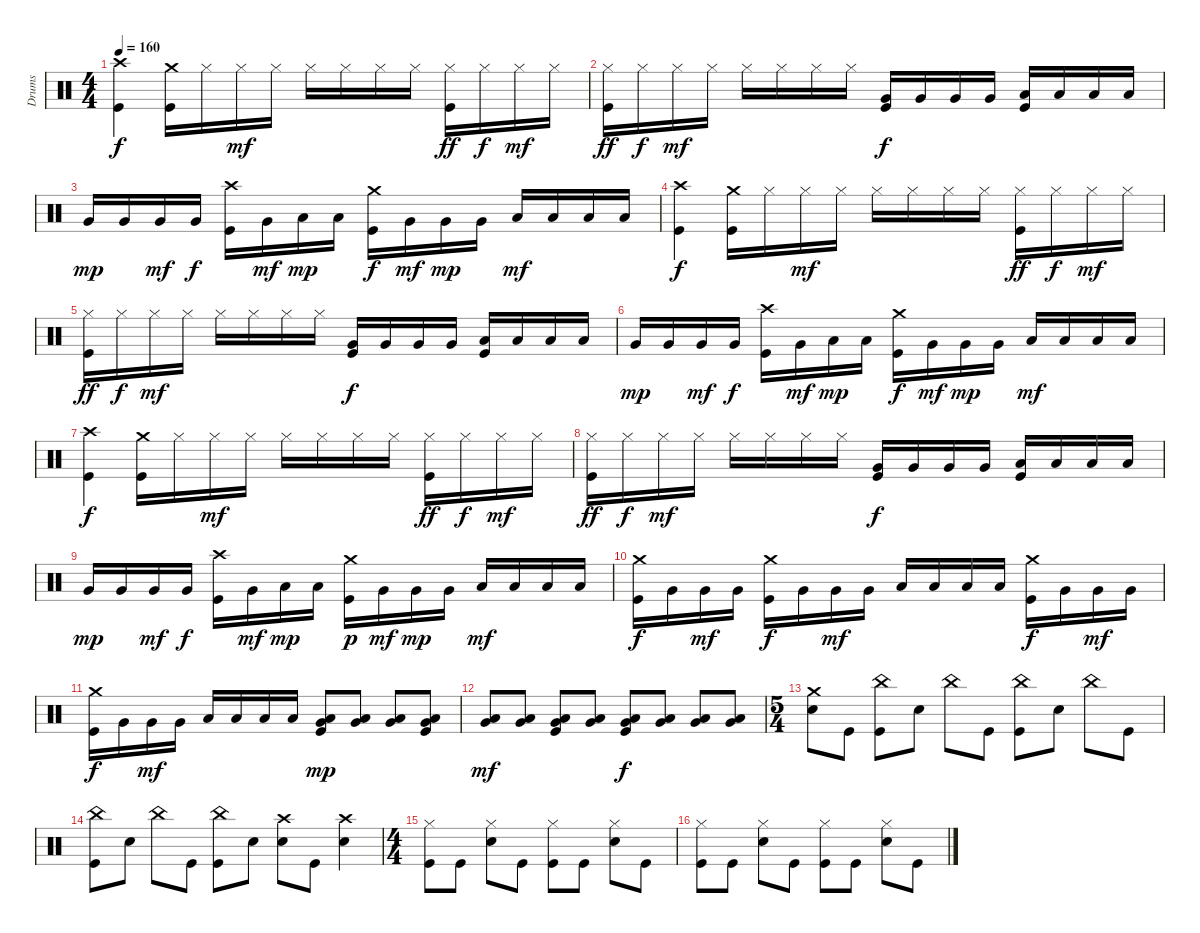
\track ("Drums" "Drums") {instrument percussion}
\staff {score}
\articulation defaults
\ts (4 4)
\tempo 160
\clef neutral
\ks c
("Crash high (hit)" "Kick (hit)").4{dy f} ("Crash medium (hit)" "Kick (hit)").16 "Hi-Hat (closed)".16 "Hi-Hat (closed)".16{dy mf} "Hi-Hat (closed)".16 "Hi-Hat (closed)".16 "Hi-Hat (closed)".16 "Hi-Hat (closed)".16 "Hi-Hat (closed)".16 ("Hi-Hat (closed)" "Kick (hit)").16{dy ff} "Hi-Hat (closed)".16{dy f} "Hi-Hat (closed)".16{dy mf} "Hi-Hat (closed)".16 |
("Hi-Hat (closed)" "Kick (hit)").16{dy ff} "Hi-Hat (closed)".16{dy f} "Hi-Hat (closed)".16{dy mf} "Hi-Hat (closed)".16 "Hi-Hat (closed)".16 "Hi-Hat (closed)".16 "Hi-Hat (closed)".16 "Hi-Hat (closed)".16 ("Very Low Tom (hit)" "Kick (hit)").16{dy f} "Very Low Tom (hit)".16 "Very Low Tom (hit)".16 "Very Low Tom (hit)".16 ("Low Floor Tom (hit)" "Kick (hit)").16 "Low Floor Tom (hit)".16 "Low Floor Tom (hit)".16 "Low Floor Tom (hit)".16 |
"Very Low Tom (hit)".16{dy mp} "Very Low Tom (hit)".16 "Very Low Tom (hit)".16{dy mf} "Very Low Tom (hit)".16{dy f} ("Crash high (hit)" "Kick (hit)").16 "Very Low Tom (hit)".16{dy mf} "Low Floor Tom (hit)".16{dy mp} "Low Floor Tom (hit)".16 ("Crash medium (hit)" "Kick (hit)").16{dy f} "Very Low Tom (hit)".16{dy mf} "Very Low Tom (hit)".16{dy mp} "Very Low Tom (hit)".16 "Low Floor Tom (hit)".16{dy mf} "Low Floor Tom (hit)".16 "Low Floor Tom (hit)".16 "Low Floor Tom (hit)".16 |
("Crash high (hit)" "Kick (hit)").4{dy f} ("Crash medium (hit)" "Kick (hit)").16 "Hi-Hat (closed)".16 "Hi-Hat (closed)".16{dy mf} "Hi-Hat (closed)".16 "Hi-Hat (closed)".16 "Hi-Hat (closed)".16 "Hi-Hat (closed)".16 "Hi-Hat (closed)".16 ("Hi-Hat (closed)" "Kick (hit)").16{dy ff} "Hi-Hat (closed)".16{dy f} "Hi-Hat (closed)".16{dy mf} "Hi-Hat (closed)".16 |
("Hi-Hat (closed)" "Kick (hit)").16{dy ff} "Hi-Hat (closed)".16{dy f} "Hi-Hat (closed)".16{dy mf} "Hi-Hat (closed)".16 "Hi-Hat (closed)".16 "Hi-Hat (closed)".16 "Hi-Hat (closed)".16 "Hi-Hat (closed)".16 ("Very Low Tom (hit)" "Kick (hit)").16{dy f} "Very Low Tom (hit)".16 "Very Low Tom (hit)".16 "Very Low Tom (hit)".16 ("Low Floor Tom (hit)" "Kick (hit)").16 "Low Floor Tom (hit)".16 "Low Floor Tom (hit)".16 "Low Floor Tom (hit)".16 |
"Very Low Tom (hit)".16{dy mp} "Very Low Tom (hit)".16 "Very Low Tom (hit)".16{dy mf} "Very Low Tom (hit)".16{dy f} ("Crash high (hit)" "Kick (hit)").16 "Very Low Tom (hit)".16{dy mf} "Low Floor Tom (hit)".16{dy mp} "Low Floor Tom (hit)".16 ("Crash medium (hit)" "Kick (hit)").16{dy f} "Very Low Tom (hit)".16{dy mf} "Very Low Tom (hit)".16{dy mp} "Very Low Tom (hit)".16 "Low Floor Tom (hit)".16{dy mf} "Low Floor Tom (hit)".16 "Low Floor Tom (hit)".16 "Low Floor Tom (hit)".16 |
("Crash high (hit)" "Kick (hit)").4{dy f} ("Crash medium (hit)" "Kick (hit)").16 "Hi-Hat (closed)".16 "Hi-Hat (closed)".16{dy mf} "Hi-Hat (closed)".16 "Hi-Hat (closed)".16 "Hi-Hat (closed)".16 "Hi-Hat (closed)".16 "Hi-Hat (closed)".16 ("Hi-Hat (closed)" "Kick (hit)").16{dy ff} "Hi-Hat (closed)".16{dy f} "Hi-Hat (closed)".16{dy mf} "Hi-Hat (closed)".16 |
("Hi-Hat (closed)" "Kick (hit)").16{dy ff} "Hi-Hat (closed)".16{dy f} "Hi-Hat (closed)".16{dy mf} "Hi-Hat (closed)".16 "Hi-Hat (closed)".16 "Hi-Hat (closed)".16 "Hi-Hat (closed)".16 "Hi-Hat (closed)".16 ("Very Low Tom (hit)" "Kick (hit)").16{dy f} "Very Low Tom (hit)".16 "Very Low Tom (hit)".16 "Very Low Tom (hit)".16 ("Low Floor Tom (hit)" "Kick (hit)").16 "Low Floor Tom (hit)".16 "Low Floor Tom (hit)".16 "Low Floor Tom (hit)".16 |
"Very Low Tom (hit)".16{dy mp} "Very Low Tom (hit)".16 "Very Low Tom (hit)".16{dy mf} "Very Low Tom (hit)".16{dy f} ("Crash high (hit)" "Kick (hit)").16 "Very Low Tom (hit)".16{dy mf} "Low Floor Tom (hit)".16{dy mp} "Low Floor Tom (hit)".16 ("Crash medium (hit)" "Kick (hit)").16{dy p} "Very Low Tom (hit)".16{dy mf} "Very Low Tom (hit)".16{dy mp} "Very Low Tom (hit)".16 "Low Floor Tom (hit)".16{dy mf} "Low Floor Tom (hit)".16 "Low Floor Tom (hit)".16 "Low Floor Tom (hit)".16 |
("Crash medium (hit)" "Kick (hit)").16{dy f} "Very Low Tom (hit)".16 "Very Low Tom (hit)".16{dy mf} "Very Low Tom (hit)".16 ("Crash medium (hit)" "Kick (hit)").16{dy f} "Very Low Tom (hit)".16 "Very Low Tom (hit)".16{dy mf} "Very Low Tom (hit)".16 "Low Floor Tom (hit)".16 "Low Floor Tom (hit)".16 "Low Floor Tom (hit)".16 "Low Floor Tom (hit)".16 ("Crash medium (hit)" "Kick (hit)").16{dy f} "Very Low Tom (hit)".16 "Very Low Tom (hit)".16{dy mf} "Very Low Tom (hit)".16 |
("Crash medium (hit)" "Kick (hit)").16{dy f} "Very Low Tom (hit)".16 "Very Low Tom (hit)".16{dy mf} "Very Low Tom (hit)".16 "Low Floor Tom (hit)".16 "Low Floor Tom (hit)".16 "Low Floor Tom (hit)".16 "Low Floor Tom (hit)".16 ("Very Low Tom (hit)" "Low Floor Tom (hit)" "Kick (hit)").8{dy mp} ("Very Low Tom (hit)" "Low Floor Tom (hit)").8 ("Very Low Tom (hit)" "Low Floor Tom (hit)").8 ("Very Low Tom (hit)" "Low Floor Tom (hit)" "Kick (hit)").8 |
("Very Low Tom (hit)" "Low Floor Tom (hit)").8{dy mf} ("Very Low Tom (hit)" "Low Floor Tom (hit)").8 ("Very Low Tom (hit)" "Low Floor Tom (hit)" "Kick (hit)").8 ("Very Low Tom (hit)" "Low Floor Tom (hit)").8 ("Very Low Tom (hit)" "Low Floor Tom (hit)" "Kick (hit)").8{dy f} ("Very Low Tom (hit)" "Low Floor Tom (hit)").8 ("Very Low Tom (hit)" "Low Floor Tom (hit)").8 ("Very Low Tom (hit)" "Low Floor Tom (hit)").8 |
\ts (5 4)
("Crash medium (hit)" "Snare (hit) 2").8 "Kick (hit)".8 ("China (hit)" "Kick (hit)").8 "Snare (hit) 2".8 "China (hit)".8 "Kick (hit)".8 ("China (hit)" "Kick (hit)").8 "Snare (hit) 2".8 "China (hit)".8 "Kick (hit)".8 |
("China (hit)" "Kick (hit)").8 "Snare (hit) 2".8 "China (hit)".8 "Kick (hit)".8 ("China (hit)" "Kick (hit)").8 "Snare (hit) 2".8 ("Crash high (hit)" "Snare (hit) 2").8 "Kick (hit)".8 ("Crash high (hit)" "Snare (hit) 2").4 |
\ts (4 4)
("Hi-Hat (closed)" "Kick (hit)").8 "Kick (hit)".8 ("Hi-Hat (closed)" "Snare (hit) 2").8 "Kick (hit)".8 ("Hi-Hat (closed)" "Kick (hit)").8 "Kick (hit)".8 ("Hi-Hat (closed)" "Snare (hit) 2").8 "Kick (hit)".8 |
("Hi-Hat (closed)" "Kick (hit)").8 "Kick (hit)".8 ("Hi-Hat (closed)" "Snare (hit) 2").8 "Kick (hit)".8 ("Hi-Hat (closed)" "Kick (hit)").8 "Kick (hit)".8 ("Hi-Hat (closed)" "Snare (hit) 2").8 "Kick (hit)".8
